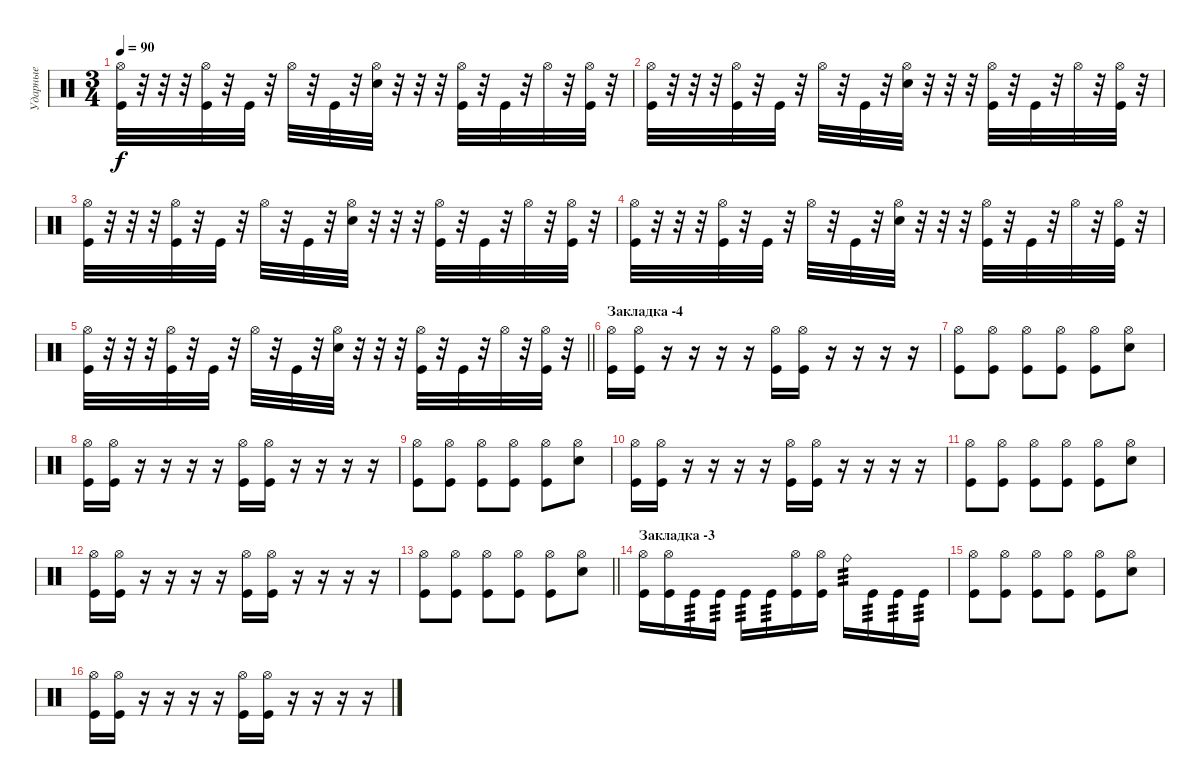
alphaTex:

\track ("Ударные" "Ударные") {instrument percussion}
\staff {score}
\articulation defaults
\ts (3 4)
\tempo 90
\clef neutral
\ks c
("Hi-Hat (open)" "Kick (hit)").32{dy f} r.32 r.32 r.32 ("Hi-Hat (open)" "Kick (hit)").32 r.32 "Kick (hit)".32 r.32 "Hi-Hat (open)".32 r.32 "Kick (hit)".32 r.32 ("Hi-Hat (open)" "Electric Snare (hit)").32 r.32 r.32 r.32 ("Hi-Hat (open)" "Kick (hit)").32 r.32 "Kick (hit)".32 r.32 "Hi-Hat (open)".32 r.32 ("Hi-Hat (open)" "Kick (hit)").32 r.32 |
("Hi-Hat (open)" "Kick (hit)").32 r.32 r.32 r.32 ("Hi-Hat (open)" "Kick (hit)").32 r.32 "Kick (hit)".32 r.32 "Hi-Hat (open)".32 r.32 "Kick (hit)".32 r.32 ("Hi-Hat (open)" "Electric Snare (hit)").32 r.32 r.32 r.32 ("Hi-Hat (open)" "Kick (hit)").32 r.32 "Kick (hit)".32 r.32 "Hi-Hat (open)".32 r.32 ("Hi-Hat (open)" "Kick (hit)").32 r.32 |
("Hi-Hat (open)" "Kick (hit)").32 r.32 r.32 r.32 ("Hi-Hat (open)" "Kick (hit)").32 r.32 "Kick (hit)".32 r.32 "Hi-Hat (open)".32 r.32 "Kick (hit)".32 r.32 ("Hi-Hat (open)" "Electric Snare (hit)").32 r.32 r.32 r.32 ("Hi-Hat (open)" "Kick (hit)").32 r.32 "Kick (hit)".32 r.32 "Hi-Hat (open)".32 r.32 ("Hi-Hat (open)" "Kick (hit)").32 r.32 |
("Hi-Hat (open)" "Kick (hit)").32 r.32 r.32 r.32 ("Hi-Hat (open)" "Kick (hit)").32 r.32 "Kick (hit)".32 r.32 "Hi-Hat (open)".32 r.32 "Kick (hit)".32 r.32 ("Hi-Hat (open)" "Electric Snare (hit)").32 r.32 r.32 r.32 ("Hi-Hat (open)" "Kick (hit)").32 r.32 "Kick (hit)".32 r.32 "Hi-Hat (open)".32 r.32 ("Hi-Hat (open)" "Kick (hit)").32 r.32 |
\barLineRight lightlight
("Hi-Hat (open)" "Kick (hit)").32 r.32 r.32 r.32 ("Hi-Hat (open)" "Kick (hit)").32 r.32 "Kick (hit)".32 r.32 "Hi-Hat (open)".32 r.32 "Kick (hit)".32 r.32 ("Hi-Hat (open)" "Electric Snare (hit)").32 r.32 r.32 r.32 ("Hi-Hat (open)" "Kick (hit)").32 r.32 "Kick (hit)".32 r.32 "Hi-Hat (open)".32 r.32 ("Hi-Hat (open)" "Kick (hit)").32 r.32 |
\section ("" "Закладка -4")
("Hi-Hat (open)" "Kick (hit)").16 ("Hi-Hat (open)" "Kick (hit)").16 r.16 r.16 r.16 r.16 ("Hi-Hat (open)" "Kick (hit)").16 ("Hi-Hat (open)" "Kick (hit)").16 r.16 r.16 r.16 r.16 |
("Hi-Hat (open)" "Kick (hit)").8 ("Hi-Hat (open)" "Kick (hit)").8 ("Hi-Hat (open)" "Kick (hit)").8 ("Hi-Hat (open)" "Kick (hit)").8 ("Hi-Hat (open)" "Kick (hit)").8 ("Hi-Hat (open)" "Electric Snare (hit)").8 |
("Hi-Hat (open)" "Kick (hit)").16 ("Hi-Hat (open)" "Kick (hit)").16 r.16 r.16 r.16 r.16 ("Hi-Hat (open)" "Kick (hit)").16 ("Hi-Hat (open)" "Kick (hit)").16 r.16 r.16 r.16 r.16 |
("Hi-Hat (open)" "Kick (hit)").8 ("Hi-Hat (open)" "Kick (hit)").8 ("Hi-Hat (open)" "Kick (hit)").8 ("Hi-Hat (open)" "Kick (hit)").8 ("Hi-Hat (open)" "Kick (hit)").8 ("Hi-Hat (open)" "Electric Snare (hit)").8 |
("Hi-Hat (open)" "Kick (hit)").16 ("Hi-Hat (open)" "Kick (hit)").16 r.16 r.16 r.16 r.16 ("Hi-Hat (open)" "Kick (hit)").16 ("Hi-Hat (open)" "Kick (hit)").16 r.16 r.16 r.16 r.16 |
("Hi-Hat (open)" "Kick (hit)").8 ("Hi-Hat (open)" "Kick (hit)").8 ("Hi-Hat (open)" "Kick (hit)").8 ("Hi-Hat (open)" "Kick (hit)").8 ("Hi-Hat (open)" "Kick (hit)").8 ("Hi-Hat (open)" "Electric Snare (hit)").8 |
("Hi-Hat (open)" "Kick (hit)").16 ("Hi-Hat (open)" "Kick (hit)").16 r.16 r.16 r.16 r.16 ("Hi-Hat (open)" "Kick (hit)").16 ("Hi-Hat (open)" "Kick (hit)").16 r.16 r.16 r.16 r.16 |
\barLineRight lightlight
("Hi-Hat (open)" "Kick (hit)").8 ("Hi-Hat (open)" "Kick (hit)").8 ("Hi-Hat (open)" "Kick (hit)").8 ("Hi-Hat (open)" "Kick (hit)").8 ("Hi-Hat (open)" "Kick (hit)").8 ("Hi-Hat (open)" "Electric Snare (hit)").8 |
\section ("" "Закладка -3")
("Hi-Hat (open)" "Kick (hit)").16 ("Hi-Hat (open)" "Kick (hit)").16 "Kick (hit)".16{tp 3} "Kick (hit)".16{tp 3} "Kick (hit)".16{tp 3} "Kick (hit)".16{tp 3} ("Hi-Hat (open)" "Kick (hit)").16 ("Hi-Hat (open)" "Kick (hit)").16 "Ride (bell)".16{tp 3} "Kick (hit)".16{tp 3} "Kick (hit)".16{tp 3} "Kick (hit)".16{tp 3} |
("Hi-Hat (open)" "Kick (hit)").8 ("Hi-Hat (open)" "Kick (hit)").8 ("Hi-Hat (open)" "Kick (hit)").8 ("Hi-Hat (open)" "Kick (hit)").8 ("Hi-Hat (open)" "Kick (hit)").8 ("Hi-Hat (open)" "Electric Snare (hit)").8 |
("Hi-Hat (open)" "Kick (hit)").16 ("Hi-Hat (open)" "Kick (hit)").16 r.16 r.16 r.16 r.16 ("Hi-Hat (open)" "Kick (hit)").16 ("Hi-Hat (open)" "Kick (hit)").16 r.16 r.16 r.16 r.16
